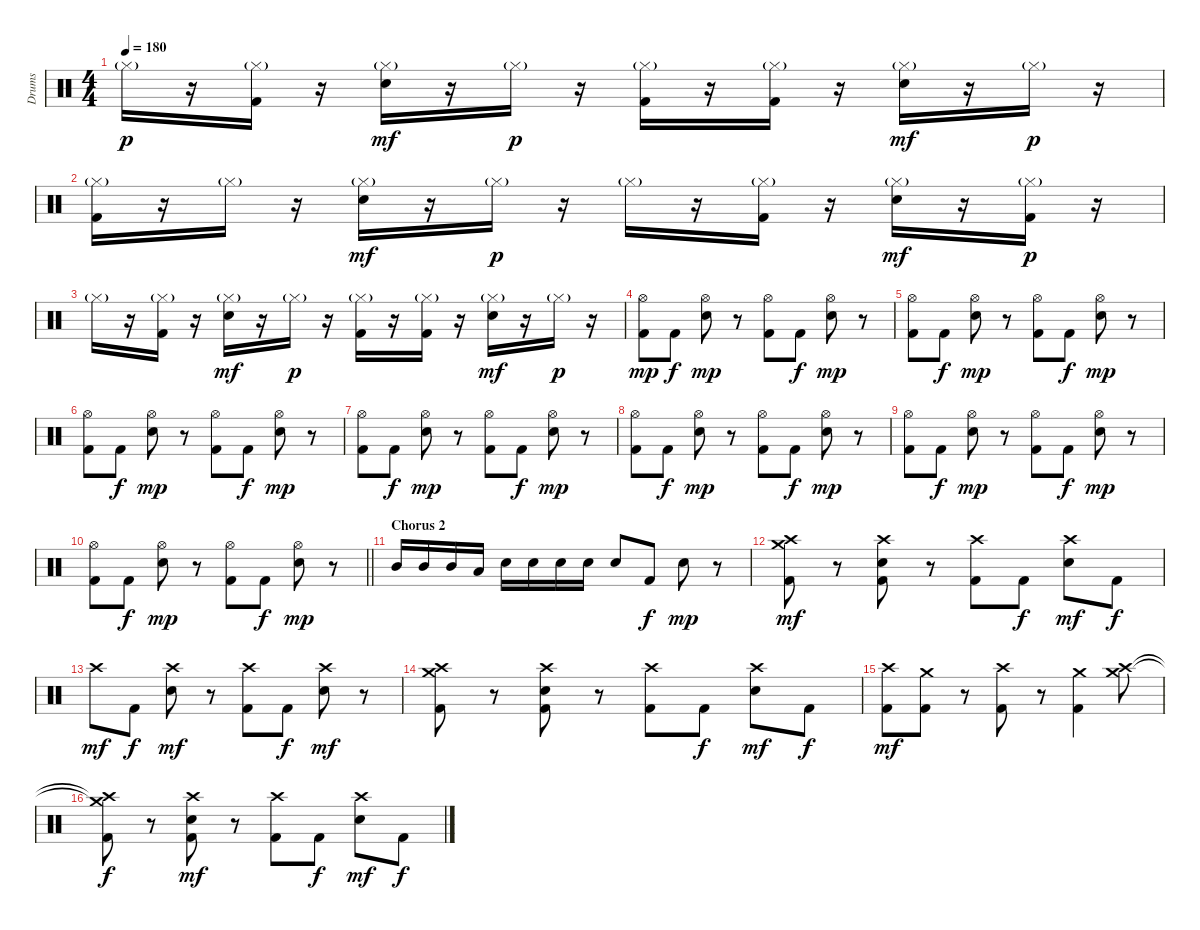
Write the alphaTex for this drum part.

\track ("Drums" "Drums") {instrument percussion}
\staff {score}
\articulation defaults
\ts (4 4)
\tempo 180
\clef neutral
\ks c "Hi-Hat (closed)"{g}.16{dy p}
r.16 ("Hi-Hat (closed)"{g} "Kick (hit) 2").16 r.16 ("Hi-Hat (closed)"{g} "Electric Snare (hit)").16{dy mf} r.16 "Hi-Hat (closed)"{g}.16{dy p} r.16 ("Hi-Hat (closed)"{g} "Kick (hit) 2").16 r.16 ("Hi-Hat (closed)"{g} "Kick (hit) 2").16 r.16 ("Hi-Hat (closed)"{g} "Electric Snare (hit)").16{dy mf} r.16 "Hi-Hat (closed)"{g}.16{dy p} r.16 |
("Hi-Hat (closed)"{g} "Kick (hit) 2").16 r.16 "Hi-Hat (closed)"{g}.16 r.16 ("Hi-Hat (closed)"{g} "Electric Snare (hit)").16{dy mf} r.16 "Hi-Hat (closed)"{g}.16{dy p} r.16 "Hi-Hat (closed)"{g}.16 r.16 ("Hi-Hat (closed)"{g} "Kick (hit) 2").16 r.16 ("Hi-Hat (closed)"{g} "Electric Snare (hit)").16{dy mf} r.16 ("Hi-Hat (closed)"{g} "Kick (hit) 2").16{dy p} r.16 |
"Hi-Hat (closed)"{g}.16 r.16 ("Hi-Hat (closed)"{g} "Kick (hit) 2").16 r.16 ("Hi-Hat (closed)"{g} "Electric Snare (hit)").16{dy mf} r.16 "Hi-Hat (closed)"{g}.16{dy p} r.16 ("Hi-Hat (closed)"{g} "Kick (hit) 2").16 r.16 ("Hi-Hat (closed)"{g} "Kick (hit) 2").16 r.16 ("Hi-Hat (closed)"{g} "Electric Snare (hit)").16{dy mf} r.16 "Hi-Hat (closed)"{g}.16{dy p} r.16 |
("Hi-Hat (open)" "Kick (hit) 2").8{dy mp} "Kick (hit) 2".8{dy f} ("Hi-Hat (open)" "Electric Snare (hit)").8{dy mp} r.8 ("Hi-Hat (open)" "Kick (hit) 2").8 "Kick (hit) 2".8{dy f} ("Hi-Hat (open)" "Electric Snare (hit)").8{dy mp} r.8 |
("Hi-Hat (open)" "Kick (hit) 2").8 "Kick (hit) 2".8{dy f} ("Hi-Hat (open)" "Electric Snare (hit)").8{dy mp} r.8 ("Hi-Hat (open)" "Kick (hit) 2").8 "Kick (hit) 2".8{dy f} ("Hi-Hat (open)" "Electric Snare (hit)").8{dy mp} r.8 |
("Hi-Hat (open)" "Kick (hit) 2").8 "Kick (hit) 2".8{dy f} ("Hi-Hat (open)" "Electric Snare (hit)").8{dy mp} r.8 ("Hi-Hat (open)" "Kick (hit) 2").8 "Kick (hit) 2".8{dy f} ("Hi-Hat (open)" "Electric Snare (hit)").8{dy mp} r.8 |
("Hi-Hat (open)" "Kick (hit) 2").8 "Kick (hit) 2".8{dy f} ("Hi-Hat (open)" "Electric Snare (hit)").8{dy mp} r.8 ("Hi-Hat (open)" "Kick (hit) 2").8 "Kick (hit) 2".8{dy f} ("Hi-Hat (open)" "Electric Snare (hit)").8{dy mp} r.8 |
("Hi-Hat (open)" "Kick (hit) 2").8 "Kick (hit) 2".8{dy f} ("Hi-Hat (open)" "Electric Snare (hit)").8{dy mp} r.8 ("Hi-Hat (open)" "Kick (hit) 2").8 "Kick (hit) 2".8{dy f} ("Hi-Hat (open)" "Electric Snare (hit)").8{dy mp} r.8 |
("Hi-Hat (open)" "Kick (hit) 2").8 "Kick (hit) 2".8{dy f} ("Hi-Hat (open)" "Electric Snare (hit)").8{dy mp} r.8 ("Hi-Hat (open)" "Kick (hit) 2").8 "Kick (hit) 2".8{dy f} ("Hi-Hat (open)" "Electric Snare (hit)").8{dy mp} r.8 |
\barLineRight lightlight
("Hi-Hat (open)" "Kick (hit) 2").8 "Kick (hit) 2".8{dy f} ("Hi-Hat (open)" "Electric Snare (hit)").8{dy mp} r.8 ("Hi-Hat (open)" "Kick (hit) 2").8 "Kick (hit) 2".8{dy f} ("Hi-Hat (open)" "Electric Snare (hit)").8{dy mp} r.8 |
\section ("" "Chorus 2")
"Mid Tom (hit)".16{volume 10} "Mid Tom (hit)".16 "Mid Tom (hit)".16 "Low Tom (hit)".16 "Electric Snare (hit)".16 "Electric Snare (hit)".16 "Electric Snare (hit)".16 "Electric Snare (hit)".16 "Electric Snare (hit)".8 "Kick (hit) 2".8{dy f} "Electric Snare (hit)".8{dy mp} r.8 |
("Crash high (hit)" "Crash medium (hit)" "Kick (hit) 2").8{dy mf} r.8 ("Crash high (hit)" "Electric Snare (hit)" "Kick (hit) 2").8 r.8 ("Crash high (hit)" "Kick (hit) 2").8 "Kick (hit) 2".8{dy f} ("Crash high (hit)" "Electric Snare (hit)").8{dy mf} "Kick (hit) 2".8{dy f} |
"Crash high (hit)".8{dy mf} "Kick (hit) 2".8{dy f} ("Crash high (hit)" "Electric Snare (hit)").8{dy mf} r.8 ("Crash high (hit)" "Kick (hit) 2").8 "Kick (hit) 2".8{dy f} ("Crash high (hit)" "Electric Snare (hit)").8{dy mf} r.8 |
("Crash high (hit)" "Crash medium (hit)" "Kick (hit) 2").8 r.8 ("Crash high (hit)" "Electric Snare (hit)" "Kick (hit) 2").8 r.8 ("Crash high (hit)" "Kick (hit) 2").8 "Kick (hit) 2".8{dy f} ("Crash high (hit)" "Electric Snare (hit)").8{dy mf} "Kick (hit) 2".8{dy f} |
("Crash high (hit)" "Kick (hit) 2").8{dy mf} ("Crash medium (hit)" "Kick (hit) 2").8 r.8 ("Crash high (hit)" "Kick (hit) 2").8 r.8 ("Crash medium (hit)" "Kick (hit) 2").4 ("Crash high (hit)" "Crash medium (hit)").8 |
("Crash high (hit)"{t} "Crash medium (hit)"{t} "Kick (hit) 2").8{dy f} r.8 ("Crash high (hit)" "Electric Snare (hit)" "Kick (hit) 2").8{dy mf} r.8 ("Crash high (hit)" "Kick (hit) 2").8 "Kick (hit) 2".8{dy f} ("Crash high (hit)" "Electric Snare (hit)").8{dy mf} "Kick (hit) 2".8{dy f}
